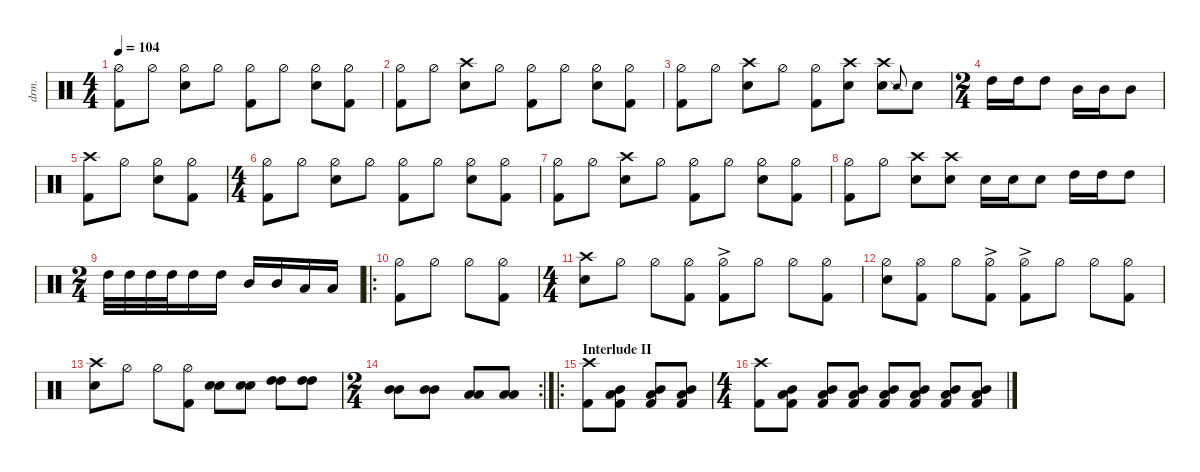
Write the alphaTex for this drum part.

\defaultSystemsLayout 4
\hideDynamics
\bracketExtendMode nobrackets
\track ("Drums" "drm.") {instrument percussion}
\staff {score}
\articulation defaults
\ts (4 4)
\beaming (8 2 2 2 2)
\tempo 104
\clef neutral
\ks c
("Kick (hit) 2" "Hi-Hat (half)").8{dy f} "Hi-Hat (half)".8 ("Hi-Hat (half)" "Snare (hit) 2").8 "Hi-Hat (half)".8 ("Kick (hit) 2" "Hi-Hat (half)").8 "Hi-Hat (half)".8 ("Hi-Hat (half)" "Snare (hit) 2").8 ("Hi-Hat (half)" "Kick (hit) 2").8 |
("Kick (hit) 2" "Hi-Hat (half)").8 "Hi-Hat (half)".8 ("Snare (hit) 2" "Crash high (hit)").8 "Hi-Hat (half)".8 ("Kick (hit) 2" "Hi-Hat (half)").8 "Hi-Hat (half)".8 ("Snare (hit) 2" "Hi-Hat (half)").8 ("Kick (hit) 2" "Hi-Hat (half)").8 |
("Kick (hit) 2" "Hi-Hat (half)").8 "Hi-Hat (half)".8 ("Snare (hit) 2" "Crash high (hit)").8 "Hi-Hat (half)".8 ("Kick (hit) 2" "Hi-Hat (half)").8 ("Snare (hit) 2" "Crash high (hit)").8 ("Snare (hit) 2" "Crash high (hit)").8 "Snare (side stick) 2".8{gr onbeat dy mf} "Snare (hit) 2".8{dy f} |
\ts (2 4)
\beaming (8 2 2 2 2)
"High Tom (hit)".16{dy ff} "High Tom (hit)".16 "High Tom (hit)".8 "Mid Tom (hit)".16 "Mid Tom (hit)".16 "Mid Tom (hit)".8 |
("Crash high (hit)" "Kick (hit) 2").8{dy f} "Hi-Hat (half)".8 ("Hi-Hat (half)" "Snare (hit) 2").8 ("Hi-Hat (half)" "Kick (hit) 2").8 |
\ts (4 4)
\beaming (8 2 2 2 2)
("Kick (hit) 2" "Hi-Hat (half)").8 "Hi-Hat (half)".8 ("Hi-Hat (half)" "Snare (hit) 2").8 "Hi-Hat (half)".8 ("Kick (hit) 2" "Hi-Hat (half)").8 "Hi-Hat (half)".8 ("Hi-Hat (half)" "Snare (hit) 2").8 ("Hi-Hat (half)" "Kick (hit) 2").8 |
("Kick (hit) 2" "Hi-Hat (half)").8 "Hi-Hat (half)".8 ("Snare (hit) 2" "Crash high (hit)").8 "Hi-Hat (half)".8 ("Kick (hit) 2" "Hi-Hat (half)").8 "Hi-Hat (half)".8 ("Snare (hit) 2" "Hi-Hat (half)").8 ("Kick (hit) 2" "Hi-Hat (half)").8 |
("Kick (hit) 2" "Hi-Hat (half)").8 "Hi-Hat (half)".8 ("Snare (hit) 2" "Crash high (hit)").8 ("Snare (hit) 2" "Crash high (hit)").8 "Snare (hit) 2".16 "Snare (hit) 2".16 "Snare (hit) 2".8 "High Tom (hit)".16{dy ff} "High Tom (hit)".16 "High Tom (hit)".8 |
\ts (2 4)
\beaming (8 2 2 2 2)
"High Tom (hit)".32 "High Tom (hit)".32 "High Tom (hit)".32 "High Tom (hit)".32 "High Tom (hit)".16 "High Tom (hit)".16 "Mid Tom (hit)".16 "Mid Tom (hit)".16 "Low Tom (hit)".16 "Low Tom (hit)".16 |
\ro
("Kick (hit) 2" "Hi-Hat (half)").8{dy f} "Hi-Hat (half)".8 "Hi-Hat (half)".8 ("Hi-Hat (half)" "Kick (hit) 2").8 |
\ts (4 4)
\beaming (8 2 2 2 2)
("Snare (hit) 2" "Crash high (hit)").8 "Hi-Hat (half)".8 "Hi-Hat (half)".8 ("Kick (hit) 2" "Hi-Hat (half)").8 ("Hi-Hat (half)"{ac} "Kick (hit) 2").8 "Hi-Hat (half)".8 "Hi-Hat (half)".8 ("Hi-Hat (half)" "Kick (hit) 2").8 |
("Snare (hit) 2" "Hi-Hat (half)").8 ("Hi-Hat (open)" "Kick (hit) 2").8 "Hi-Hat (half)".8 ("Hi-Hat (half)"{ac} "Kick (hit) 2").8 ("Hi-Hat (half)"{ac} "Kick (hit) 2").8 "Hi-Hat (half)".8 "Hi-Hat (half)".8 ("Hi-Hat (half)" "Kick (hit) 2").8 |
("Snare (hit) 2" "Crash high (hit)").8 "Hi-Hat (half)".8 "Hi-Hat (half)".8 ("Kick (hit) 2" "Hi-Hat (half)").8 ("Snare (hit) 2" "Snare (hit) 2").8 ("Snare (hit) 2" "Snare (hit) 2").8 ("High Tom (hit)" "High Tom (hit)").8{dy ff} ("High Tom (hit)" "High Tom (hit)").8 |
\rc 2
\ts (2 4)
\beaming (8 2 2 2 2)
("Mid Tom (hit)" "Mid Tom (hit)").8 ("Mid Tom (hit)" "Mid Tom (hit)").8 ("Low Tom (hit)" "Low Tom (hit)").8 ("Low Tom (hit)" "Low Tom (hit)").8 |
\ro
\section ("" "Interlude II")
("Kick (hit) 2" "Crash high (hit)").8{dy f} ("Low Tom (hit)" "Mid Tom (hit)" "Kick (hit) 2").8 ("Low Tom (hit)" "Mid Tom (hit)" "Kick (hit) 2").8 ("Low Tom (hit)" "Mid Tom (hit)" "Kick (hit) 2").8 |
\ts (4 4)
\beaming (8 2 2 2 2)
("Kick (hit) 2" "Crash high (hit)").8 ("Low Tom (hit)" "Mid Tom (hit)" "Kick (hit) 2").8 ("Low Tom (hit)" "Mid Tom (hit)" "Kick (hit) 2").8 ("Low Tom (hit)" "Mid Tom (hit)" "Kick (hit) 2").8 ("Low Tom (hit)" "Mid Tom (hit)" "Kick (hit) 2").8 ("Low Tom (hit)" "Mid Tom (hit)" "Kick (hit) 2").8 ("Low Tom (hit)" "Mid Tom (hit)" "Kick (hit) 2").8 ("Low Tom (hit)" "Mid Tom (hit)" "Kick (hit) 2").8
